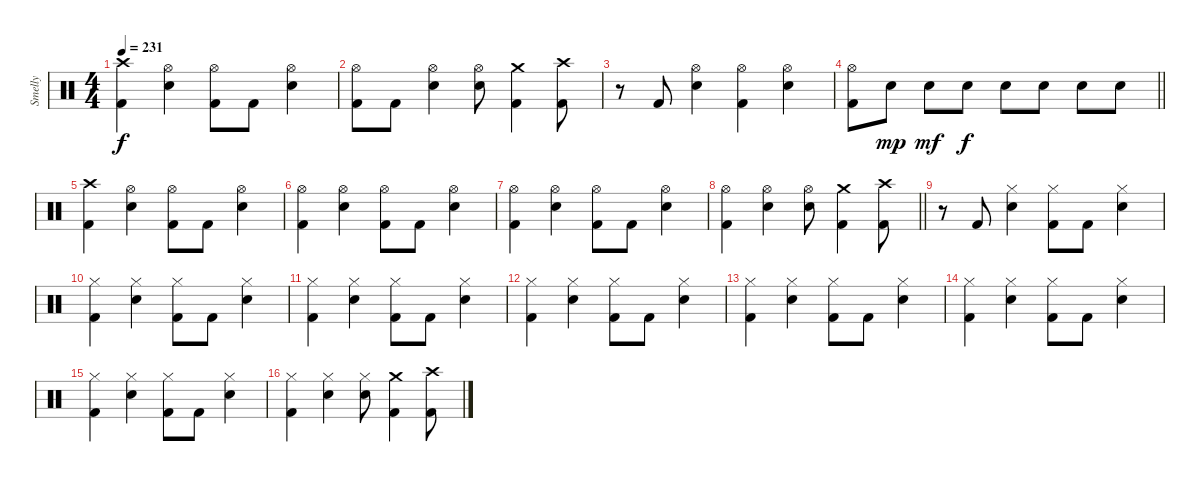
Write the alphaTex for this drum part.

\track ("Smelly" "Smelly") {instrument percussion}
\staff {score}
\articulation defaults
\ts (4 4)
\tempo 231
\clef neutral
\ks c
("Crash high (hit)" "Kick (hit) 2").4{dy f} ("Hi-Hat (open)" "Electric Snare (hit)").4 ("Hi-Hat (open)" "Kick (hit) 2").8 "Kick (hit) 2".8 ("Hi-Hat (open)" "Electric Snare (hit)").4 |
("Hi-Hat (open)" "Kick (hit) 2").8 "Kick (hit) 2".8 ("Hi-Hat (open)" "Electric Snare (hit)").4 ("Hi-Hat (open)" "Electric Snare (hit)").8 ("Crash medium (hit)" "Kick (hit) 2").4 ("Crash high (hit)" "Kick (hit) 2").8 |
r.8 "Kick (hit) 2".8 ("Hi-Hat (open)" "Electric Snare (hit)").4 ("Hi-Hat (open)" "Kick (hit) 2").4 ("Hi-Hat (open)" "Electric Snare (hit)").4 |
\barLineRight lightlight
("Hi-Hat (open)" "Kick (hit) 2").8 "Electric Snare (hit)".8{dy mp} "Electric Snare (hit)".8{dy mf} "Electric Snare (hit)".8{dy f} "Electric Snare (hit)".8 "Electric Snare (hit)".8 "Electric Snare (hit)".8 "Electric Snare (hit)".8 |
\section ("" "")
("Crash high (hit)" "Kick (hit) 2").4 ("Hi-Hat (open)" "Electric Snare (hit)").4 ("Hi-Hat (open)" "Kick (hit) 2").8 "Kick (hit) 2".8 ("Hi-Hat (open)" "Electric Snare (hit)").4 |
("Hi-Hat (open)" "Kick (hit) 2").4 ("Hi-Hat (open)" "Electric Snare (hit)").4 ("Hi-Hat (open)" "Kick (hit) 2").8 "Kick (hit) 2".8 ("Hi-Hat (open)" "Electric Snare (hit)").4 |
("Hi-Hat (open)" "Kick (hit) 2").4 ("Hi-Hat (open)" "Electric Snare (hit)").4 ("Hi-Hat (open)" "Kick (hit) 2").8 "Kick (hit) 2".8 ("Hi-Hat (open)" "Electric Snare (hit)").4 |
\barLineRight lightlight
("Hi-Hat (open)" "Kick (hit) 2").4 ("Hi-Hat (open)" "Electric Snare (hit)").4 ("Hi-Hat (open)" "Electric Snare (hit)").8 ("Crash medium (hit)" "Kick (hit) 2").4 ("Crash high (hit)" "Kick (hit) 2").8 |
\section ("" "")
r.8 "Kick (hit) 2".8 ("Hi-Hat (closed)" "Electric Snare (hit)").4 ("Hi-Hat (closed)" "Kick (hit) 2").8 "Kick (hit) 2".8 ("Hi-Hat (closed)" "Electric Snare (hit)").4 |
("Hi-Hat (closed)" "Kick (hit) 2").4 ("Hi-Hat (closed)" "Electric Snare (hit)").4 ("Hi-Hat (closed)" "Kick (hit) 2").8 "Kick (hit) 2".8 ("Hi-Hat (closed)" "Electric Snare (hit)").4 |
("Hi-Hat (closed)" "Kick (hit) 2").4 ("Hi-Hat (closed)" "Electric Snare (hit)").4 ("Hi-Hat (closed)" "Kick (hit) 2").8 "Kick (hit) 2".8 ("Hi-Hat (closed)" "Electric Snare (hit)").4 |
("Hi-Hat (closed)" "Kick (hit) 2").4 ("Hi-Hat (closed)" "Electric Snare (hit)").4 ("Hi-Hat (closed)" "Kick (hit) 2").8 "Kick (hit) 2".8 ("Hi-Hat (closed)" "Electric Snare (hit)").4 |
("Hi-Hat (closed)" "Kick (hit) 2").4 ("Hi-Hat (closed)" "Electric Snare (hit)").4 ("Hi-Hat (closed)" "Kick (hit) 2").8 "Kick (hit) 2".8 ("Hi-Hat (closed)" "Electric Snare (hit)").4 |
("Hi-Hat (closed)" "Kick (hit) 2").4 ("Hi-Hat (closed)" "Electric Snare (hit)").4 ("Hi-Hat (closed)" "Kick (hit) 2").8 "Kick (hit) 2".8 ("Hi-Hat (closed)" "Electric Snare (hit)").4 |
("Hi-Hat (closed)" "Kick (hit) 2").4 ("Hi-Hat (closed)" "Electric Snare (hit)").4 ("Hi-Hat (closed)" "Kick (hit) 2").8 "Kick (hit) 2".8 ("Hi-Hat (closed)" "Electric Snare (hit)").4 |
("Hi-Hat (closed)" "Kick (hit) 2").4 ("Hi-Hat (closed)" "Electric Snare (hit)").4 ("Hi-Hat (closed)" "Electric Snare (hit)").8 ("Crash medium (hit)" "Kick (hit) 2").4 ("Crash high (hit)" "Kick (hit) 2").8
